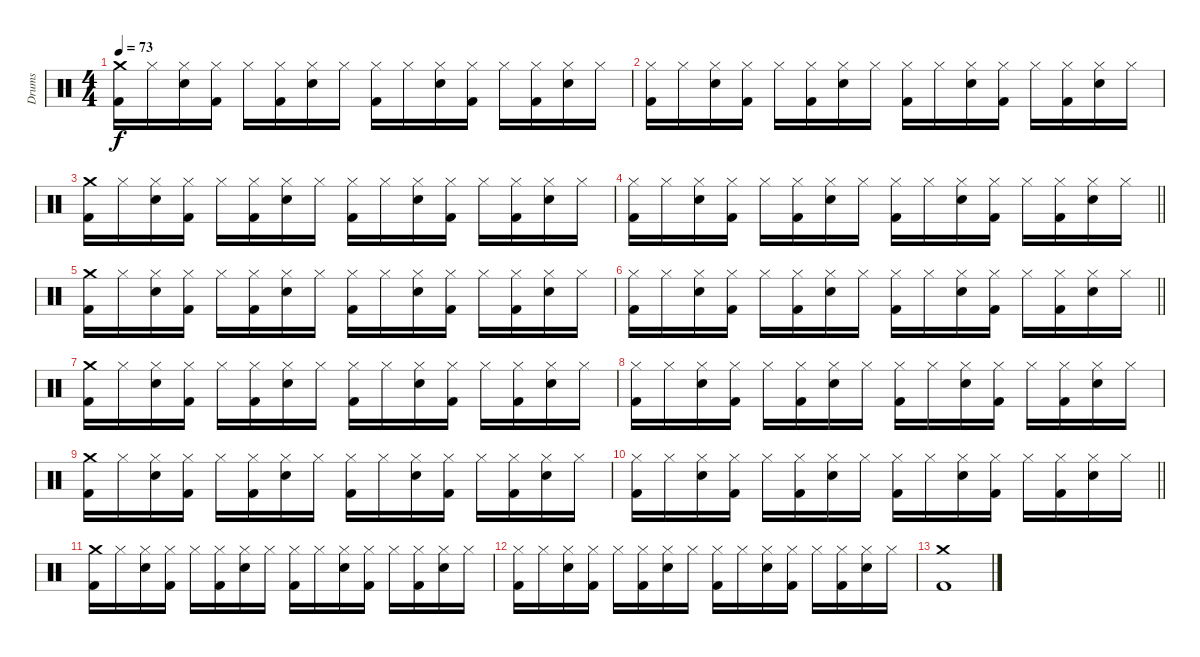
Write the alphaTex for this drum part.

\track ("Drums" "Drums") {instrument percussion}
\staff {score}
\articulation defaults
\ts (4 4)
\tempo 73
\clef neutral
\ks c
("Crash medium (hit)" "Kick (hit) 2").16{dy f} "Hi-Hat (closed)".16 ("Hi-Hat (closed)" "Snare (hit) 2").16 ("Hi-Hat (closed)" "Kick (hit) 2").16 "Hi-Hat (closed)".16 ("Hi-Hat (closed)" "Kick (hit) 2").16 ("Hi-Hat (closed)" "Snare (hit) 2").16 "Hi-Hat (closed)".16 ("Hi-Hat (closed)" "Kick (hit) 2").16 "Hi-Hat (closed)".16 ("Hi-Hat (closed)" "Snare (hit) 2").16 ("Hi-Hat (closed)" "Kick (hit) 2").16 "Hi-Hat (closed)".16 ("Hi-Hat (closed)" "Kick (hit) 2").16 ("Hi-Hat (closed)" "Snare (hit) 2").16 "Hi-Hat (closed)".16 |
("Hi-Hat (closed)" "Kick (hit) 2").16 "Hi-Hat (closed)".16 ("Hi-Hat (closed)" "Snare (hit) 2").16 ("Hi-Hat (closed)" "Kick (hit) 2").16 "Hi-Hat (closed)".16 ("Hi-Hat (closed)" "Kick (hit) 2").16 ("Hi-Hat (closed)" "Snare (hit) 2").16 "Hi-Hat (closed)".16 ("Hi-Hat (closed)" "Kick (hit) 2").16 "Hi-Hat (closed)".16 ("Hi-Hat (closed)" "Snare (hit) 2").16 ("Hi-Hat (closed)" "Kick (hit) 2").16 "Hi-Hat (closed)".16 ("Hi-Hat (closed)" "Kick (hit) 2").16 ("Hi-Hat (closed)" "Snare (hit) 2").16 "Hi-Hat (closed)".16 |
("Crash medium (hit)" "Kick (hit) 2").16 "Hi-Hat (closed)".16 ("Hi-Hat (closed)" "Snare (hit) 2").16 ("Hi-Hat (closed)" "Kick (hit) 2").16 "Hi-Hat (closed)".16 ("Hi-Hat (closed)" "Kick (hit) 2").16 ("Hi-Hat (closed)" "Snare (hit) 2").16 "Hi-Hat (closed)".16 ("Hi-Hat (closed)" "Kick (hit) 2").16 "Hi-Hat (closed)".16 ("Hi-Hat (closed)" "Snare (hit) 2").16 ("Hi-Hat (closed)" "Kick (hit) 2").16 "Hi-Hat (closed)".16 ("Hi-Hat (closed)" "Kick (hit) 2").16 ("Hi-Hat (closed)" "Snare (hit) 2").16 "Hi-Hat (closed)".16 |
\barLineRight lightlight
("Hi-Hat (closed)" "Kick (hit) 2").16 "Hi-Hat (closed)".16 ("Hi-Hat (closed)" "Snare (hit) 2").16 ("Hi-Hat (closed)" "Kick (hit) 2").16 "Hi-Hat (closed)".16 ("Hi-Hat (closed)" "Kick (hit) 2").16 ("Hi-Hat (closed)" "Snare (hit) 2").16 "Hi-Hat (closed)".16 ("Hi-Hat (closed)" "Kick (hit) 2").16 "Hi-Hat (closed)".16 ("Hi-Hat (closed)" "Snare (hit) 2").16 ("Hi-Hat (closed)" "Kick (hit) 2").16 "Hi-Hat (closed)".16 ("Hi-Hat (closed)" "Kick (hit) 2").16 ("Hi-Hat (closed)" "Snare (hit) 2").16 "Hi-Hat (closed)".16 |
("Crash medium (hit)" "Kick (hit) 2").16 "Hi-Hat (closed)".16 ("Hi-Hat (closed)" "Snare (hit) 2").16 ("Hi-Hat (closed)" "Kick (hit) 2").16 "Hi-Hat (closed)".16 ("Hi-Hat (closed)" "Kick (hit) 2").16 ("Hi-Hat (closed)" "Snare (hit) 2").16 "Hi-Hat (closed)".16 ("Hi-Hat (closed)" "Kick (hit) 2").16 "Hi-Hat (closed)".16 ("Hi-Hat (closed)" "Snare (hit) 2").16 ("Hi-Hat (closed)" "Kick (hit) 2").16 "Hi-Hat (closed)".16 ("Hi-Hat (closed)" "Kick (hit) 2").16 ("Hi-Hat (closed)" "Snare (hit) 2").16 "Hi-Hat (closed)".16 |
\barLineRight lightlight
("Hi-Hat (closed)" "Kick (hit) 2").16 "Hi-Hat (closed)".16 ("Hi-Hat (closed)" "Snare (hit) 2").16 ("Hi-Hat (closed)" "Kick (hit) 2").16 "Hi-Hat (closed)".16 ("Hi-Hat (closed)" "Kick (hit) 2").16 ("Hi-Hat (closed)" "Snare (hit) 2").16 "Hi-Hat (closed)".16 ("Hi-Hat (closed)" "Kick (hit) 2").16 "Hi-Hat (closed)".16 ("Hi-Hat (closed)" "Snare (hit) 2").16 ("Hi-Hat (closed)" "Kick (hit) 2").16 "Hi-Hat (closed)".16 ("Hi-Hat (closed)" "Kick (hit) 2").16 ("Hi-Hat (closed)" "Snare (hit) 2").16 "Hi-Hat (closed)".16 |
("Crash medium (hit)" "Kick (hit) 2").16 "Hi-Hat (closed)".16 ("Hi-Hat (closed)" "Snare (hit) 2").16 ("Hi-Hat (closed)" "Kick (hit) 2").16 "Hi-Hat (closed)".16 ("Hi-Hat (closed)" "Kick (hit) 2").16 ("Hi-Hat (closed)" "Snare (hit) 2").16 "Hi-Hat (closed)".16 ("Hi-Hat (closed)" "Kick (hit) 2").16 "Hi-Hat (closed)".16 ("Hi-Hat (closed)" "Snare (hit) 2").16 ("Hi-Hat (closed)" "Kick (hit) 2").16 "Hi-Hat (closed)".16 ("Hi-Hat (closed)" "Kick (hit) 2").16 ("Hi-Hat (closed)" "Snare (hit) 2").16 "Hi-Hat (closed)".16 |
("Hi-Hat (closed)" "Kick (hit) 2").16 "Hi-Hat (closed)".16 ("Hi-Hat (closed)" "Snare (hit) 2").16 ("Hi-Hat (closed)" "Kick (hit) 2").16 "Hi-Hat (closed)".16 ("Hi-Hat (closed)" "Kick (hit) 2").16 ("Hi-Hat (closed)" "Snare (hit) 2").16 "Hi-Hat (closed)".16 ("Hi-Hat (closed)" "Kick (hit) 2").16 "Hi-Hat (closed)".16 ("Hi-Hat (closed)" "Snare (hit) 2").16 ("Hi-Hat (closed)" "Kick (hit) 2").16 "Hi-Hat (closed)".16 ("Hi-Hat (closed)" "Kick (hit) 2").16 ("Hi-Hat (closed)" "Snare (hit) 2").16 "Hi-Hat (closed)".16 |
("Crash medium (hit)" "Kick (hit) 2").16 "Hi-Hat (closed)".16 ("Hi-Hat (closed)" "Snare (hit) 2").16 ("Hi-Hat (closed)" "Kick (hit) 2").16 "Hi-Hat (closed)".16 ("Hi-Hat (closed)" "Kick (hit) 2").16 ("Hi-Hat (closed)" "Snare (hit) 2").16 "Hi-Hat (closed)".16 ("Hi-Hat (closed)" "Kick (hit) 2").16 "Hi-Hat (closed)".16 ("Hi-Hat (closed)" "Snare (hit) 2").16 ("Hi-Hat (closed)" "Kick (hit) 2").16 "Hi-Hat (closed)".16 ("Hi-Hat (closed)" "Kick (hit) 2").16 ("Hi-Hat (closed)" "Snare (hit) 2").16 "Hi-Hat (closed)".16 |
\barLineRight lightlight
("Hi-Hat (closed)" "Kick (hit) 2").16 "Hi-Hat (closed)".16 ("Hi-Hat (closed)" "Snare (hit) 2").16 ("Hi-Hat (closed)" "Kick (hit) 2").16 "Hi-Hat (closed)".16 ("Hi-Hat (closed)" "Kick (hit) 2").16 ("Hi-Hat (closed)" "Snare (hit) 2").16 "Hi-Hat (closed)".16 ("Hi-Hat (closed)" "Kick (hit) 2").16 "Hi-Hat (closed)".16 ("Hi-Hat (closed)" "Snare (hit) 2").16 ("Hi-Hat (closed)" "Kick (hit) 2").16 "Hi-Hat (closed)".16 ("Hi-Hat (closed)" "Kick (hit) 2").16 ("Hi-Hat (closed)" "Snare (hit) 2").16 "Hi-Hat (closed)".16 |
("Crash medium (hit)" "Kick (hit) 2").16 "Hi-Hat (closed)".16 ("Hi-Hat (closed)" "Snare (hit) 2").16 ("Hi-Hat (closed)" "Kick (hit) 2").16 "Hi-Hat (closed)".16 ("Hi-Hat (closed)" "Kick (hit) 2").16 ("Hi-Hat (closed)" "Snare (hit) 2").16 "Hi-Hat (closed)".16 ("Hi-Hat (closed)" "Kick (hit) 2").16 "Hi-Hat (closed)".16 ("Hi-Hat (closed)" "Snare (hit) 2").16 ("Hi-Hat (closed)" "Kick (hit) 2").16 "Hi-Hat (closed)".16 ("Hi-Hat (closed)" "Kick (hit) 2").16 ("Hi-Hat (closed)" "Snare (hit) 2").16 "Hi-Hat (closed)".16 |
("Hi-Hat (closed)" "Kick (hit) 2").16 "Hi-Hat (closed)".16 ("Hi-Hat (closed)" "Snare (hit) 2").16 ("Hi-Hat (closed)" "Kick (hit) 2").16 "Hi-Hat (closed)".16 ("Hi-Hat (closed)" "Kick (hit) 2").16 ("Hi-Hat (closed)" "Snare (hit) 2").16 "Hi-Hat (closed)".16 ("Hi-Hat (closed)" "Kick (hit) 2").16 "Hi-Hat (closed)".16 ("Hi-Hat (closed)" "Snare (hit) 2").16 ("Hi-Hat (closed)" "Kick (hit) 2").16 "Hi-Hat (closed)".16 ("Hi-Hat (closed)" "Kick (hit) 2").16 ("Hi-Hat (closed)" "Snare (hit) 2").16 "Hi-Hat (closed)".16 |
("Crash medium (hit)" "Kick (hit) 2").1
